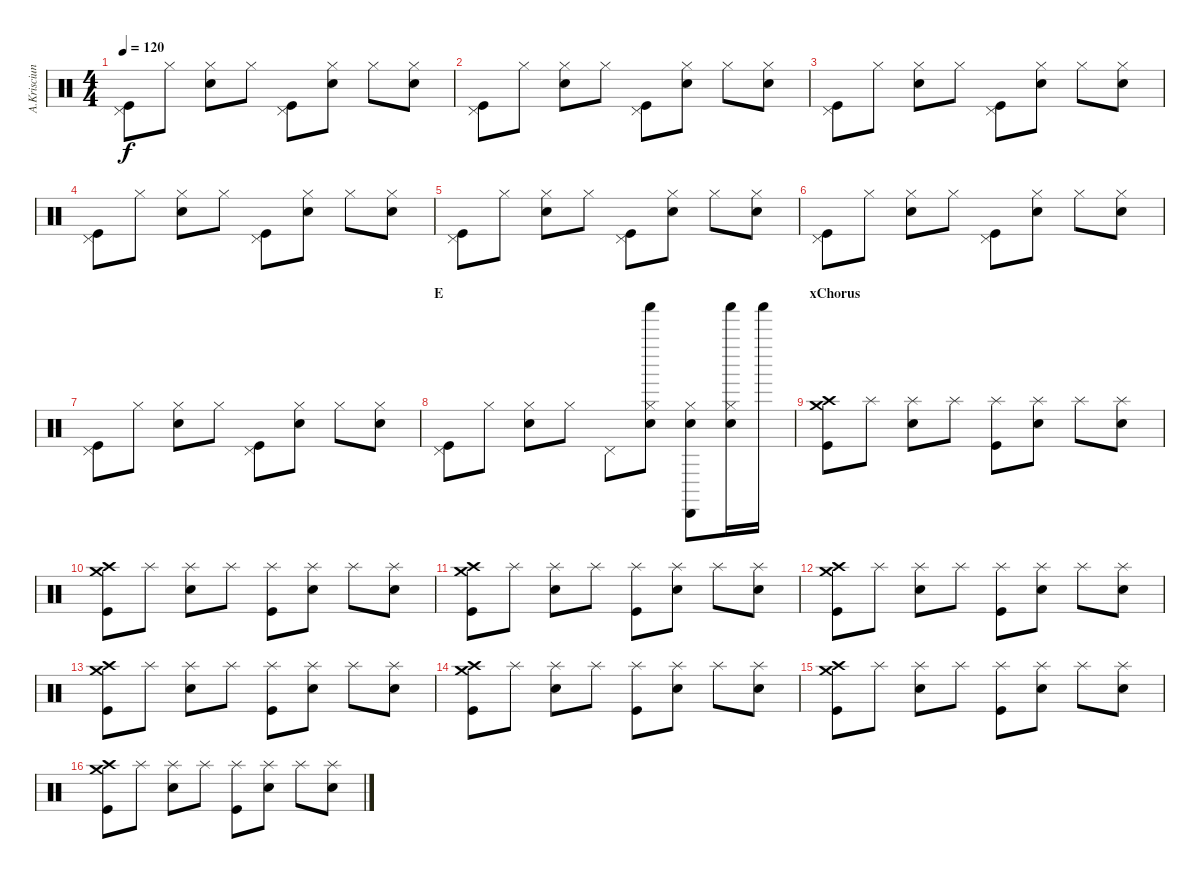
\track ("A.Krisciunas" "A.Krisciun") {instrument percussion}
\staff {score}
\articulation defaults
\ts (4 4)
\tempo 120
\clef neutral
\ks c
("Pedal Hi-Hat (hit)" "Kick (hit)").8{dy f} "Hi-Hat (closed)".8 ("Hi-Hat (closed)" "Electric Snare (hit)").8 "Hi-Hat (closed)".8 ("Pedal Hi-Hat (hit)" "Kick (hit)").8 ("Hi-Hat (closed)" "Electric Snare (hit)").8 "Hi-Hat (closed)".8 ("Hi-Hat (closed)" "Electric Snare (hit)").8 |
("Pedal Hi-Hat (hit)" "Kick (hit)").8 "Hi-Hat (closed)".8 ("Hi-Hat (closed)" "Electric Snare (hit)").8 "Hi-Hat (closed)".8 ("Pedal Hi-Hat (hit)" "Kick (hit)").8 ("Hi-Hat (closed)" "Electric Snare (hit)").8 "Hi-Hat (closed)".8 ("Hi-Hat (closed)" "Electric Snare (hit)").8 |
("Pedal Hi-Hat (hit)" "Kick (hit)").8 "Hi-Hat (closed)".8 ("Hi-Hat (closed)" "Electric Snare (hit)").8 "Hi-Hat (closed)".8 ("Pedal Hi-Hat (hit)" "Kick (hit)").8 ("Hi-Hat (closed)" "Electric Snare (hit)").8 "Hi-Hat (closed)".8 ("Hi-Hat (closed)" "Electric Snare (hit)").8 |
("Pedal Hi-Hat (hit)" "Kick (hit)").8 "Hi-Hat (closed)".8 ("Hi-Hat (closed)" "Electric Snare (hit)").8 "Hi-Hat (closed)".8 ("Pedal Hi-Hat (hit)" "Kick (hit)").8 ("Hi-Hat (closed)" "Electric Snare (hit)").8 "Hi-Hat (closed)".8 ("Hi-Hat (closed)" "Electric Snare (hit)").8 |
("Pedal Hi-Hat (hit)" "Kick (hit)").8 "Hi-Hat (closed)".8 ("Hi-Hat (closed)" "Electric Snare (hit)").8 "Hi-Hat (closed)".8 ("Pedal Hi-Hat (hit)" "Kick (hit)").8 ("Hi-Hat (closed)" "Electric Snare (hit)").8 "Hi-Hat (closed)".8 ("Hi-Hat (closed)" "Electric Snare (hit)").8 |
("Pedal Hi-Hat (hit)" "Kick (hit)").8 "Hi-Hat (closed)".8 ("Hi-Hat (closed)" "Electric Snare (hit)").8 "Hi-Hat (closed)".8 ("Pedal Hi-Hat (hit)" "Kick (hit)").8 ("Hi-Hat (closed)" "Electric Snare (hit)").8 "Hi-Hat (closed)".8 ("Hi-Hat (closed)" "Electric Snare (hit)").8 |
("Pedal Hi-Hat (hit)" "Kick (hit)").8 "Hi-Hat (closed)".8 ("Hi-Hat (closed)" "Electric Snare (hit)").8 "Hi-Hat (closed)".8 ("Pedal Hi-Hat (hit)" "Kick (hit)").8 ("Hi-Hat (closed)" "Electric Snare (hit)").8 "Hi-Hat (closed)".8 ("Hi-Hat (closed)" "Electric Snare (hit)").8 |
\section ("" "E")
("Pedal Hi-Hat (hit)" "Kick (hit)").8 "Hi-Hat (closed)".8 ("Hi-Hat (closed)" "Electric Snare (hit)").8 "Hi-Hat (closed)".8 "Pedal Hi-Hat (hit)".8 ("Shaker (hit)" "Hi-Hat (closed)" "Electric Snare (hit)").8 ("Cabasa (hit)" "Hi-Hat (closed)" "Electric Snare (hit)").8 ("Shaker (hit)" "Hi-Hat (closed)" "Electric Snare (hit)").16 "Shaker (hit)".16 |
\section ("" "xChorus")
("Crash medium (hit)" "Crash high (hit)" "Kick (hit)").8 "Splash (hit)".8 ("Splash (hit)" "Electric Snare (hit)").8 "Splash (hit)".8 ("Splash (hit)" "Kick (hit)").8 ("Splash (hit)" "Electric Snare (hit)").8 "Splash (hit)".8 ("Splash (hit)" "Electric Snare (hit)").8 |
("Crash medium (hit)" "Crash high (hit)" "Kick (hit)").8 "Splash (hit)".8 ("Splash (hit)" "Electric Snare (hit)").8 "Splash (hit)".8 ("Splash (hit)" "Kick (hit)").8 ("Splash (hit)" "Electric Snare (hit)").8 "Splash (hit)".8 ("Splash (hit)" "Electric Snare (hit)").8 |
("Crash medium (hit)" "Crash high (hit)" "Kick (hit)").8 "Splash (hit)".8 ("Splash (hit)" "Electric Snare (hit)").8 "Splash (hit)".8 ("Splash (hit)" "Kick (hit)").8 ("Splash (hit)" "Electric Snare (hit)").8 "Splash (hit)".8 ("Splash (hit)" "Electric Snare (hit)").8 |
("Crash medium (hit)" "Crash high (hit)" "Kick (hit)").8 "Splash (hit)".8 ("Splash (hit)" "Electric Snare (hit)").8 "Splash (hit)".8 ("Splash (hit)" "Kick (hit)").8 ("Splash (hit)" "Electric Snare (hit)").8 "Splash (hit)".8 ("Splash (hit)" "Electric Snare (hit)").8 |
("Crash medium (hit)" "Crash high (hit)" "Kick (hit)").8 "Splash (hit)".8 ("Splash (hit)" "Electric Snare (hit)").8 "Splash (hit)".8 ("Splash (hit)" "Kick (hit)").8 ("Splash (hit)" "Electric Snare (hit)").8 "Splash (hit)".8 ("Splash (hit)" "Electric Snare (hit)").8 |
("Crash medium (hit)" "Crash high (hit)" "Kick (hit)").8 "Splash (hit)".8 ("Splash (hit)" "Electric Snare (hit)").8 "Splash (hit)".8 ("Splash (hit)" "Kick (hit)").8 ("Splash (hit)" "Electric Snare (hit)").8 "Splash (hit)".8 ("Splash (hit)" "Electric Snare (hit)").8 |
("Crash medium (hit)" "Crash high (hit)" "Kick (hit)").8 "Splash (hit)".8 ("Splash (hit)" "Electric Snare (hit)").8 "Splash (hit)".8 ("Splash (hit)" "Kick (hit)").8 ("Splash (hit)" "Electric Snare (hit)").8 "Splash (hit)".8 ("Splash (hit)" "Electric Snare (hit)").8 |
("Crash medium (hit)" "Crash high (hit)" "Kick (hit)").8 "Splash (hit)".8 ("Splash (hit)" "Electric Snare (hit)").8 "Splash (hit)".8 ("Splash (hit)" "Kick (hit)").8 ("Splash (hit)" "Electric Snare (hit)").8 "Splash (hit)".8 ("Splash (hit)" "Electric Snare (hit)").8
